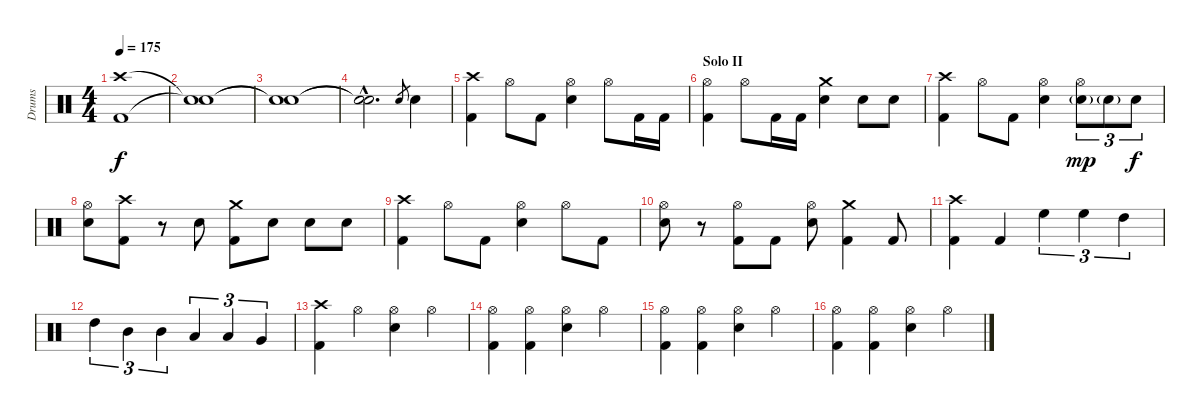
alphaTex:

\track ("Drums" "Drums") {instrument percussion}
\staff {score}
\articulation defaults
\ts (4 4)
\tempo 175
\clef neutral
\ks c
("Crash high (hit)" "Kick (hit) 2").1{dy f} |
("Snare (hit)"{t} "Snare (hit)"{t}).1 |
("Snare (hit)"{t} "Snare (hit)"{t}).1 |
("Snare (hit)"{hac t} "Snare (hit)"{hac t}).2{d} "Snare (hit) 2".8{gr} "Snare (hit) 2".4 |
("Crash high (hit)" "Kick (hit) 2").4 "Hi-Hat (open)".8 "Kick (hit) 2".8 ("Hi-Hat (open)" "Snare (hit) 2").4 "Hi-Hat (open)".8 "Kick (hit) 2".16 "Kick (hit) 2".16 |
\section ("" "Solo II")
("Hi-Hat (open)" "Kick (hit) 2").4 "Hi-Hat (open)".8 "Kick (hit) 2".16 "Kick (hit) 2".16 ("Crash medium (hit)" "Snare (hit) 2").4 "Snare (hit) 2".8 "Snare (hit) 2".8 |
("Crash high (hit)" "Kick (hit) 2").4 "Hi-Hat (open)".8 "Kick (hit) 2".8 ("Hi-Hat (open)" "Snare (hit) 2").4 ("Hi-Hat (open)" "Snare (hit) 2"{g}).8{tu (3 2) dy mp} "Snare (hit) 2"{g}.8{tu (3 2)} "Snare (hit) 2".8{tu (3 2) dy f} |
("Hi-Hat (open)" "Snare (hit) 2").8 ("Crash high (hit)" "Kick (hit) 2").8 r.8 "Snare (hit) 2".8 ("Crash medium (hit)" "Kick (hit) 2").8 "Snare (hit) 2".8 "Snare (hit) 2".8 "Snare (hit) 2".8 |
("Crash high (hit)" "Kick (hit) 2").4 "Hi-Hat (open)".8 "Kick (hit) 2".8 ("Hi-Hat (open)" "Snare (hit) 2").4 "Hi-Hat (open)".8 "Kick (hit) 2".8 |
("Hi-Hat (open)" "Snare (hit) 2").8 r.8 ("Hi-Hat (open)" "Kick (hit) 2").8 "Kick (hit) 2".8 ("Hi-Hat (open)" "Snare (hit) 2").8 ("Crash medium (hit)" "Kick (hit) 2").4 "Kick (hit) 2".8 |
("Crash high (hit)" "Kick (hit) 2").4 "Kick (hit) 2".4 "High Floor Tom (hit)".4{tu (3 2)} "High Floor Tom (hit)".4{tu (3 2)} "High Tom (hit)".4{tu (3 2)} |
"High Tom (hit)".4{tu (3 2)} "Mid Tom (hit)".4{tu (3 2)} "Mid Tom (hit)".4{tu (3 2)} "Low Tom (hit)".4{tu (3 2)} "Low Tom (hit)".4{tu (3 2)} "Very Low Tom (hit)".4{tu (3 2)} |
("Crash high (hit)" "Kick (hit) 2").4 "Hi-Hat (open)".4 ("Hi-Hat (open)" "Snare (hit) 2").4 "Hi-Hat (open)".4 |
("Hi-Hat (open)" "Kick (hit) 2").4 ("Hi-Hat (open)" "Kick (hit) 2").4 ("Hi-Hat (open)" "Snare (hit) 2").4 "Hi-Hat (open)".4 |
("Hi-Hat (open)" "Kick (hit) 2").4 ("Hi-Hat (open)" "Kick (hit) 2").4 ("Hi-Hat (open)" "Snare (hit) 2").4 "Hi-Hat (open)".4 |
("Hi-Hat (open)" "Kick (hit) 2").4 ("Hi-Hat (open)" "Kick (hit) 2").4 ("Hi-Hat (open)" "Snare (hit) 2").4 "Hi-Hat (open)".4
